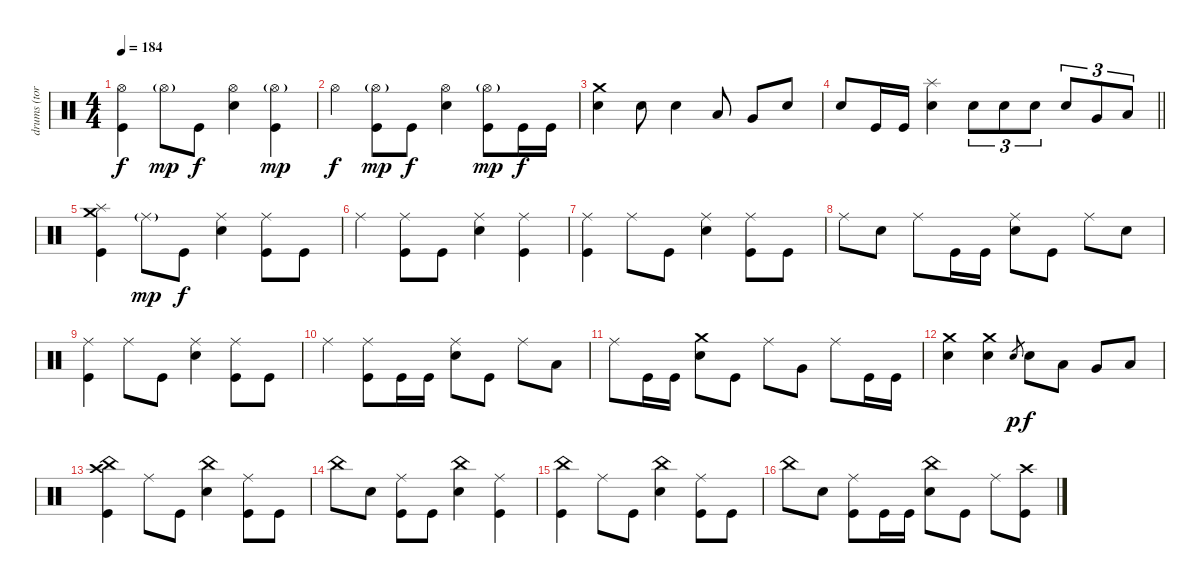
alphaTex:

\track ("drums (tora)" "drums (tor") {instrument percussion}
\staff {score}
\articulation defaults
\ts (4 4)
\tempo 184
\clef neutral
\ks c
("Hi-Hat (open)" "Kick (hit)").4{dy f} "Hi-Hat (open)"{g}.8{dy mp} "Kick (hit)".8{dy f} ("Hi-Hat (open)" "Snare (hit) 2").4 ("Hi-Hat (open)"{g} "Kick (hit)").4{dy mp} |
"Hi-Hat (open)".4{dy f} ("Hi-Hat (open)"{g} "Kick (hit)").8{dy mp} "Kick (hit)".8{dy f} ("Hi-Hat (open)" "Snare (hit) 2").4 ("Hi-Hat (open)"{g} "Kick (hit)").8{dy mp} "Kick (hit)".16{dy f} "Kick (hit)".16 |
("Crash medium (hit)" "Snare (hit) 2").4 "Snare (hit) 2".8 "Snare (hit) 2".4 "Low Tom (hit)".8 "Very Low Tom (hit)".8 "Snare (hit) 2".8 |
\barLineRight lightlight "Snare (hit) 2".8 "Kick (hit)".16 "Kick (hit)".16
("Splash (hit)" "Snare (hit) 2").4 "Snare (hit) 2".8{tu (3 2)} "Snare (hit) 2".8{tu (3 2)} "Snare (hit) 2".8{tu (3 2)} "Snare (hit) 2".8{tu (3 2)} "Very Low Tom (hit)".8{tu (3 2)} "Low Floor Tom (hit)".8{tu (3 2)} |
\section ("" "")
("Crash medium (hit)" "Splash (hit)" "Kick (hit)").4 "Ride (middle)"{g}.8{dy mp} "Kick (hit)".8{dy f} ("Ride (middle)" "Snare (hit) 2").4 ("Ride (middle)" "Kick (hit)").8 "Kick (hit)".8 |
"Ride (middle)".4 ("Ride (middle)" "Kick (hit)").8 "Kick (hit)".8 ("Ride (middle)" "Snare (hit) 2").4 ("Ride (middle)" "Kick (hit)").4 |
("Ride (middle)" "Kick (hit)").4 "Ride (middle)".8 "Kick (hit)".8 ("Ride (middle)" "Snare (hit) 2").4 ("Ride (middle)" "Kick (hit)").8 "Kick (hit)".8 |
"Ride (middle)".8 "Snare (hit) 2".8 "Ride (middle)".8 "Kick (hit)".16 "Kick (hit)".16 ("Ride (middle)" "Snare (hit) 2").8 "Kick (hit)".8 "Ride (middle)".8 "Snare (hit) 2".8 |
("Ride (middle)" "Kick (hit)").4 "Ride (middle)".8 "Kick (hit)".8 ("Ride (middle)" "Snare (hit) 2").4 ("Ride (middle)" "Kick (hit)").8 "Kick (hit)".8 |
"Ride (middle)".4 ("Ride (middle)" "Kick (hit)").8 "Kick (hit)".16 "Kick (hit)".16 ("Ride (middle)" "Snare (hit) 2").8 "Kick (hit)".8 "Ride (middle)".8 "Low Tom (hit)".8 |
"Ride (middle)".8 "Kick (hit)".16 "Kick (hit)".16 ("Crash medium (hit)" "Snare (hit) 2").8 "Kick (hit)".8 "Ride (middle)".8 "Very Low Tom (hit)".8 "Ride (middle)".8 "Kick (hit)".16 "Kick (hit)".16 |
("Crash medium (hit)" "Snare (hit) 2").4 ("Crash medium (hit)" "Snare (hit) 2").4 "Snare (hit) 2".8{gr dy p} "Snare (hit) 2".8{dy f} "Low Tom (hit)".8 "Very Low Tom (hit)".8 "Low Floor Tom (hit)".8 |
("Crash high (hit)" "China (hit)" "Kick (hit)").4 "Ride (middle)".8 "Kick (hit)".8 ("China (hit)" "Snare (hit) 2").4 ("Ride (middle)" "Kick (hit)").8 "Kick (hit)".8 |
"China (hit)".8 "Snare (hit) 2".8 ("Ride (middle)" "Kick (hit)").8 "Kick (hit)".8 ("China (hit)" "Snare (hit) 2").4 ("Ride (middle)" "Kick (hit)").4 |
("China (hit)" "Kick (hit)").4 "Ride (middle)".8 "Kick (hit)".8 ("China (hit)" "Snare (hit) 2").4 ("Ride (middle)" "Kick (hit)").8 "Kick (hit)".8 |
"China (hit)".8 "Snare (hit) 2".8 ("Ride (middle)" "Kick (hit)").8 "Kick (hit)".16 "Kick (hit)".16 ("China (hit)" "Snare (hit) 2").8 "Kick (hit)".8 "Ride (middle)".8 ("Crash high (hit)" "Kick (hit)").8
